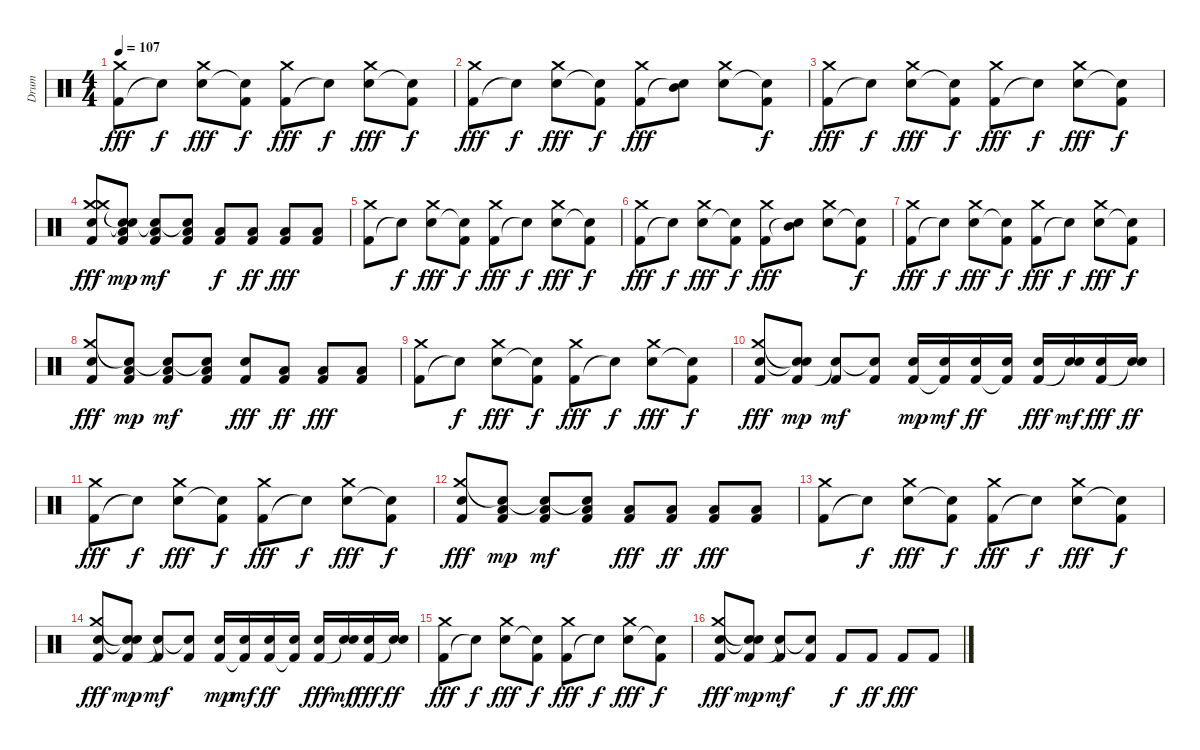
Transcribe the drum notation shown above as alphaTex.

\track ("Drum" "Drum") {instrument percussion}
\staff {score}
\articulation defaults
\ts (4 4)
\tempo 107
\clef neutral
\ks c
("Kick (hit) 2" "Crash medium (hit)").8{txt "" dy fff} "Snare (hit)"{t}.8{dy f} ("Electric Snare (hit)" "Crash medium (hit)").8{dy fff} ("Snare (hit)"{t} "Kick (hit) 2").8{dy f} ("Kick (hit) 2" "Crash medium (hit)").8{dy fff} "Snare (hit)"{t}.8{dy f} ("Electric Snare (hit)" "Crash medium (hit)").8{dy fff} ("Snare (hit)"{t} "Kick (hit) 2").8{dy f} |
("Kick (hit) 2" "Crash medium (hit)").8{txt "" dy fff} "Snare (hit)"{t}.8{dy f} ("Electric Snare (hit)" "Crash medium (hit)").8{dy fff} ("Snare (hit)"{t} "Kick (hit) 2").8{dy f} ("Kick (hit) 2" "Crash medium (hit)").8{dy fff} ("Snare (hit)"{t} "Mid Tom (hit)").8 ("Electric Snare (hit)" "Crash medium (hit)").8 ("Snare (hit)"{t} "Kick (hit) 2").8{dy f} |
("Kick (hit) 2" "Crash medium (hit)").8{txt "" dy fff} "Snare (hit)"{t}.8{dy f} ("Electric Snare (hit)" "Crash medium (hit)").8{dy fff} ("Snare (hit)"{t} "Kick (hit) 2").8{dy f} ("Kick (hit) 2" "Crash medium (hit)").8{dy fff} "Snare (hit)"{t}.8{dy f} ("Electric Snare (hit)" "Crash medium (hit)").8{dy fff} ("Snare (hit)"{t} "Kick (hit) 2").8{dy f} |
("Crash medium (hit)" "Electric Snare (hit)" "Kick (hit) 2" "Crash medium (hit)").8{txt "" dy fff} ("Snare (hit)"{t} "Snare (hit)"{t} "Low Floor Tom (hit)" "Kick (hit) 2").8{dy mp} ("Snare (hit)"{t} "Low Floor Tom (hit)" "Kick (hit) 2").8{dy mf} ("Snare (hit)"{t} "Low Floor Tom (hit)" "Kick (hit) 2").8 ("Low Floor Tom (hit)" "Kick (hit) 2").8{dy f} ("Low Floor Tom (hit)" "Kick (hit) 2").8{dy ff} ("Low Floor Tom (hit)" "Kick (hit) 2").8{dy fff} ("Low Floor Tom (hit)" "Kick (hit) 2").8 |
("Kick (hit) 2" "Crash medium (hit)").8{txt ""} "Snare (hit)"{t}.8{dy f} ("Electric Snare (hit)" "Crash medium (hit)").8{dy fff} ("Snare (hit)"{t} "Kick (hit) 2").8{dy f} ("Kick (hit) 2" "Crash medium (hit)").8{dy fff} "Snare (hit)"{t}.8{dy f} ("Electric Snare (hit)" "Crash medium (hit)").8{dy fff} ("Snare (hit)"{t} "Kick (hit) 2").8{dy f} |
("Kick (hit) 2" "Crash medium (hit)").8{txt "" dy fff} "Snare (hit)"{t}.8{dy f} ("Electric Snare (hit)" "Crash medium (hit)").8{dy fff} ("Snare (hit)"{t} "Kick (hit) 2").8{dy f} ("Kick (hit) 2" "Crash medium (hit)").8{dy fff} ("Snare (hit)"{t} "Mid Tom (hit)").8 ("Electric Snare (hit)" "Crash medium (hit)").8 ("Snare (hit)"{t} "Kick (hit) 2").8{dy f} |
("Kick (hit) 2" "Crash medium (hit)").8{txt "" dy fff} "Snare (hit)"{t}.8{dy f} ("Electric Snare (hit)" "Crash medium (hit)").8{dy fff} ("Snare (hit)"{t} "Kick (hit) 2").8{dy f} ("Kick (hit) 2" "Crash medium (hit)").8{dy fff} "Snare (hit)"{t}.8{dy f} ("Electric Snare (hit)" "Crash medium (hit)").8{dy fff} ("Snare (hit)"{t} "Kick (hit) 2").8{dy f} |
("Electric Snare (hit)" "Kick (hit) 2" "Crash medium (hit)").8{txt "" dy fff} ("Low Floor Tom (hit)" "Kick (hit) 2" "Snare (hit)"{t}).8{dy mp} ("Low Floor Tom (hit)" "Kick (hit) 2" "Snare (hit)"{t}).8{dy mf} ("Low Floor Tom (hit)" "Kick (hit) 2" "Snare (hit)"{t}).8 ("Snare (hit)" "Kick (hit) 2").8{dy fff} ("Low Floor Tom (hit)" "Kick (hit) 2").8{dy ff} ("Low Floor Tom (hit)" "Kick (hit) 2").8{dy fff} ("Low Floor Tom (hit)" "Kick (hit) 2").8 |
("Kick (hit) 2" "Crash medium (hit)").8 "Snare (hit)"{t}.8{dy f} ("Electric Snare (hit)" "Crash medium (hit)").8{dy fff} ("Snare (hit)"{t} "Kick (hit) 2").8{dy f} ("Kick (hit) 2" "Crash medium (hit)").8{dy fff} "Snare (hit)"{t}.8{dy f} ("Electric Snare (hit)" "Crash medium (hit)").8{dy fff} ("Snare (hit)"{t} "Kick (hit) 2").8{dy f} |
("Electric Snare (hit)" "Kick (hit) 2" "Crash medium (hit)").8{txt "" dy fff} ("Snare (hit)"{t} "Kick (hit) 2" "Snare (hit)"{t}).8{dy mp} ("Kick (hit) 2" "Snare (hit)"{t}).8{dy mf} ("Kick (hit) 2" "Snare (hit)"{t}).8 ("Electric Snare (hit)" "Kick (hit) 2").16{dy mp} ("Electric Snare (hit)" "Kick (hit) 2"{t}).16{dy mf} ("Electric Snare (hit)" "Kick (hit) 2").16{dy ff} ("Electric Snare (hit)" "Kick (hit) 2"{t}).16 ("Electric Snare (hit)" "Kick (hit) 2").16{dy fff} ("Electric Snare (hit)" "Snare (hit)"{t}).16{dy mf} ("Electric Snare (hit)" "Kick (hit) 2").16{dy fff} ("Electric Snare (hit)" "Snare (hit)"{t}).16{dy ff} |
("Kick (hit) 2" "Crash medium (hit)").8{dy fff} "Snare (hit)"{t}.8{dy f} ("Electric Snare (hit)" "Crash medium (hit)").8{dy fff} ("Snare (hit)"{t} "Kick (hit) 2").8{dy f} ("Kick (hit) 2" "Crash medium (hit)").8{dy fff} "Snare (hit)"{t}.8{dy f} ("Electric Snare (hit)" "Crash medium (hit)").8{dy fff} ("Snare (hit)"{t} "Kick (hit) 2").8{dy f} |
("Electric Snare (hit)" "Kick (hit) 2" "Crash medium (hit)").8{txt "" dy fff} ("Low Floor Tom (hit)" "Kick (hit) 2" "Snare (hit)"{t}).8{dy mp} ("Low Floor Tom (hit)" "Kick (hit) 2" "Snare (hit)"{t}).8{dy mf} ("Low Floor Tom (hit)" "Kick (hit) 2" "Snare (hit)"{t}).8 ("Low Floor Tom (hit)" "Kick (hit) 2").8{dy fff} ("Low Floor Tom (hit)" "Kick (hit) 2").8{dy ff} ("Low Floor Tom (hit)" "Kick (hit) 2").8{dy fff} ("Low Floor Tom (hit)" "Kick (hit) 2").8 |
("Kick (hit) 2" "Crash medium (hit)").8 "Snare (hit)"{t}.8{dy f} ("Electric Snare (hit)" "Crash medium (hit)").8{dy fff} ("Snare (hit)"{t} "Kick (hit) 2").8{dy f} ("Kick (hit) 2" "Crash medium (hit)").8{dy fff} "Snare (hit)"{t}.8{dy f} ("Electric Snare (hit)" "Crash medium (hit)").8{dy fff} ("Snare (hit)"{t} "Kick (hit) 2").8{dy f} |
("Electric Snare (hit)" "Kick (hit) 2" "Crash medium (hit)").8{txt "" dy fff} ("Snare (hit)"{t} "Kick (hit) 2" "Snare (hit)"{t}).8{dy mp} ("Kick (hit) 2" "Snare (hit)"{t}).8{dy mf} ("Kick (hit) 2" "Snare (hit)"{t}).8 ("Electric Snare (hit)" "Kick (hit) 2").16{dy mp} ("Electric Snare (hit)" "Kick (hit) 2"{t}).16{dy mf} ("Electric Snare (hit)" "Kick (hit) 2").16{dy ff} ("Electric Snare (hit)" "Kick (hit) 2"{t}).16 ("Electric Snare (hit)" "Kick (hit) 2").16{dy fff} ("Electric Snare (hit)" "Snare (hit)"{t}).16{dy mf} ("Electric Snare (hit)" "Kick (hit) 2").16{dy fff} ("Electric Snare (hit)" "Snare (hit)"{t}).16{dy ff} |
("Kick (hit) 2" "Crash medium (hit)").8{dy fff} "Snare (hit)"{t}.8{dy f} ("Electric Snare (hit)" "Crash medium (hit)").8{dy fff} ("Snare (hit)"{t} "Kick (hit) 2").8{dy f} ("Kick (hit) 2" "Crash medium (hit)").8{dy fff} "Snare (hit)"{t}.8{dy f} ("Electric Snare (hit)" "Crash medium (hit)").8{dy fff} ("Snare (hit)"{t} "Kick (hit) 2").8{dy f} |
("Electric Snare (hit)" "Kick (hit) 2" "Crash medium (hit)").8{txt "" dy fff} ("Snare (hit)"{t} "Kick (hit) 2" "Snare (hit)"{t}).8{dy mp} ("Kick (hit) 2" "Snare (hit)"{t}).8{dy mf} ("Kick (hit) 2" "Snare (hit)"{t}).8 "Kick (hit) 2".8{dy f} "Kick (hit) 2".8{dy ff} "Kick (hit) 2".8{dy fff} "Kick (hit) 2".8
